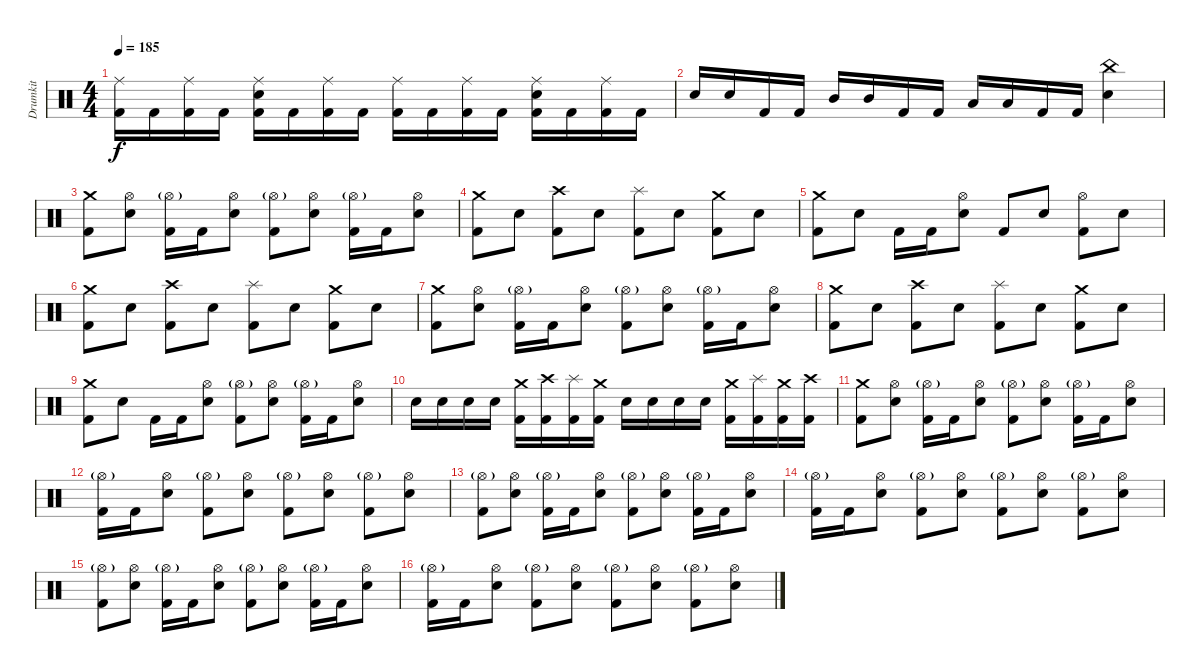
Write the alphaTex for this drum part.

\track ("Drumkit" "Drumkit") {instrument percussion}
\staff {score}
\articulation defaults
\ts (4 4)
\tempo 185
\clef neutral
\ks c
("Ride (middle)" "Kick (hit) 2").16{dy f} "Kick (hit) 2".16 ("Ride (middle)" "Kick (hit) 2").16 "Kick (hit) 2".16 ("Ride (middle)" "Snare (hit) 2" "Kick (hit) 2").16 "Kick (hit) 2".16 ("Ride (middle)" "Kick (hit) 2").16 "Kick (hit) 2".16 ("Ride (middle)" "Kick (hit) 2").16 "Kick (hit) 2".16 ("Ride (middle)" "Kick (hit) 2").16 "Kick (hit) 2".16 ("Ride (middle)" "Snare (hit) 2" "Kick (hit) 2").16 "Kick (hit) 2".16 ("Ride (middle)" "Kick (hit) 2").16 "Kick (hit) 2".16 |
"Snare (hit) 2".16 "Snare (hit) 2".16 "Kick (hit) 2".16 "Kick (hit) 2".16 "Mid Tom (hit)".16 "Mid Tom (hit)".16 "Kick (hit) 2".16 "Kick (hit) 2".16 "Low Tom (hit)".16 "Low Tom (hit)".16 "Kick (hit) 2".16 "Kick (hit) 2".16 ("China (hit)" "Snare (hit) 2").4 |
("Crash medium (hit)" "Kick (hit) 2").8 ("Hi-Hat (open)" "Snare (hit) 2").8 ("Hi-Hat (open)"{g} "Kick (hit) 2").16 "Kick (hit) 2".16 ("Hi-Hat (open)" "Snare (hit) 2").8 ("Hi-Hat (open)"{g} "Kick (hit) 2").8 ("Hi-Hat (open)" "Snare (hit) 2").8 ("Hi-Hat (open)"{g} "Kick (hit) 2").16 "Kick (hit) 2".16 ("Hi-Hat (open)" "Snare (hit) 2").8 |
("Crash medium (hit)" "Kick (hit) 2").8 "Snare (hit) 2".8 ("Crash high (hit)" "Kick (hit) 2").8 "Snare (hit) 2".8 ("Splash (hit)" "Kick (hit) 2").8 "Snare (hit) 2".8 ("Crash medium (hit)" "Kick (hit) 2").8 "Snare (hit) 2".8 |
("Crash medium (hit)" "Kick (hit) 2").8 "Snare (hit) 2".8 "Kick (hit) 2".16 "Kick (hit) 2".16 ("Hi-Hat (open)" "Snare (hit) 2").8 "Kick (hit) 2".8 "Snare (hit) 2".8 ("Hi-Hat (open)" "Kick (hit) 2").8 "Snare (hit) 2".8 |
("Crash medium (hit)" "Kick (hit) 2").8 "Snare (hit) 2".8 ("Crash high (hit)" "Kick (hit) 2").8 "Snare (hit) 2".8 ("Splash (hit)" "Kick (hit) 2").8 "Snare (hit) 2".8 ("Crash medium (hit)" "Kick (hit) 2").8 "Snare (hit) 2".8 |
("Crash medium (hit)" "Kick (hit) 2").8 ("Hi-Hat (open)" "Snare (hit) 2").8 ("Hi-Hat (open)"{g} "Kick (hit) 2").16 "Kick (hit) 2".16 ("Hi-Hat (open)" "Snare (hit) 2").8 ("Hi-Hat (open)"{g} "Kick (hit) 2").8 ("Hi-Hat (open)" "Snare (hit) 2").8 ("Hi-Hat (open)"{g} "Kick (hit) 2").16 "Kick (hit) 2".16 ("Hi-Hat (open)" "Snare (hit) 2").8 |
("Crash medium (hit)" "Kick (hit) 2").8 "Snare (hit) 2".8 ("Crash high (hit)" "Kick (hit) 2").8 "Snare (hit) 2".8 ("Splash (hit)" "Kick (hit) 2").8 "Snare (hit) 2".8 ("Crash medium (hit)" "Kick (hit) 2").8 "Snare (hit) 2".8 |
("Crash medium (hit)" "Kick (hit) 2").8 "Snare (hit) 2".8 "Kick (hit) 2".16 "Kick (hit) 2".16 ("Hi-Hat (open)" "Snare (hit) 2").8 ("Hi-Hat (open)"{g} "Kick (hit) 2").8 ("Hi-Hat (open)" "Snare (hit) 2").8 ("Hi-Hat (open)"{g} "Kick (hit) 2").16 "Kick (hit) 2".16 ("Hi-Hat (open)" "Snare (hit) 2").8 |
"Snare (hit) 2".16 "Snare (hit) 2".16 "Snare (hit) 2".16 "Snare (hit) 2".16 ("Crash medium (hit)" "Kick (hit) 2").16 ("Crash high (hit)" "Kick (hit) 2").16 ("Splash (hit)" "Kick (hit) 2").16 ("Crash medium (hit)" "Kick (hit) 2").16 "Snare (hit) 2".16 "Snare (hit) 2".16 "Snare (hit) 2".16 "Snare (hit) 2".16 ("Crash medium (hit)" "Kick (hit) 2").16 ("Splash (hit)" "Kick (hit) 2").16 ("Crash medium (hit)" "Kick (hit) 2").16 ("Crash high (hit)" "Kick (hit) 2").16 |
("Crash medium (hit)" "Kick (hit) 2").8 ("Hi-Hat (open)" "Snare (hit) 2").8 ("Hi-Hat (open)"{g} "Kick (hit) 2").16 "Kick (hit) 2".16 ("Hi-Hat (open)" "Snare (hit) 2").8 ("Hi-Hat (open)"{g} "Kick (hit) 2").8 ("Hi-Hat (open)" "Snare (hit) 2").8 ("Hi-Hat (open)"{g} "Kick (hit) 2").16 "Kick (hit) 2".16 ("Hi-Hat (open)" "Snare (hit) 2").8 |
("Hi-Hat (open)"{g} "Kick (hit) 2").16 "Kick (hit) 2".16 ("Hi-Hat (open)" "Snare (hit) 2").8 ("Hi-Hat (open)"{g} "Kick (hit) 2").8 ("Hi-Hat (open)" "Snare (hit) 2").8 ("Hi-Hat (open)"{g} "Kick (hit) 2").8 ("Hi-Hat (open)" "Snare (hit) 2").8 ("Hi-Hat (open)"{g} "Kick (hit) 2").8 ("Hi-Hat (open)" "Snare (hit) 2").8 |
("Hi-Hat (open)"{g} "Kick (hit) 2").8 ("Hi-Hat (open)" "Snare (hit) 2").8 ("Hi-Hat (open)"{g} "Kick (hit) 2").16 "Kick (hit) 2".16 ("Hi-Hat (open)" "Snare (hit) 2").8 ("Hi-Hat (open)"{g} "Kick (hit) 2").8 ("Hi-Hat (open)" "Snare (hit) 2").8 ("Hi-Hat (open)"{g} "Kick (hit) 2").16 "Kick (hit) 2".16 ("Hi-Hat (open)" "Snare (hit) 2").8 |
("Hi-Hat (open)"{g} "Kick (hit) 2").16 "Kick (hit) 2".16 ("Hi-Hat (open)" "Snare (hit) 2").8 ("Hi-Hat (open)"{g} "Kick (hit) 2").8 ("Hi-Hat (open)" "Snare (hit) 2").8 ("Hi-Hat (open)"{g} "Kick (hit) 2").8 ("Hi-Hat (open)" "Snare (hit) 2").8 ("Hi-Hat (open)"{g} "Kick (hit) 2").8 ("Hi-Hat (open)" "Snare (hit) 2").8 |
("Hi-Hat (open)"{g} "Kick (hit) 2").8 ("Hi-Hat (open)" "Snare (hit) 2").8 ("Hi-Hat (open)"{g} "Kick (hit) 2").16 "Kick (hit) 2".16 ("Hi-Hat (open)" "Snare (hit) 2").8 ("Hi-Hat (open)"{g} "Kick (hit) 2").8 ("Hi-Hat (open)" "Snare (hit) 2").8 ("Hi-Hat (open)"{g} "Kick (hit) 2").16 "Kick (hit) 2".16 ("Hi-Hat (open)" "Snare (hit) 2").8 |
("Hi-Hat (open)"{g} "Kick (hit) 2").16 "Kick (hit) 2".16 ("Hi-Hat (open)" "Snare (hit) 2").8 ("Hi-Hat (open)"{g} "Kick (hit) 2").8 ("Hi-Hat (open)" "Snare (hit) 2").8 ("Hi-Hat (open)"{g} "Kick (hit) 2").8 ("Hi-Hat (open)" "Snare (hit) 2").8 ("Hi-Hat (open)"{g} "Kick (hit) 2").8 ("Hi-Hat (open)" "Snare (hit) 2").8
